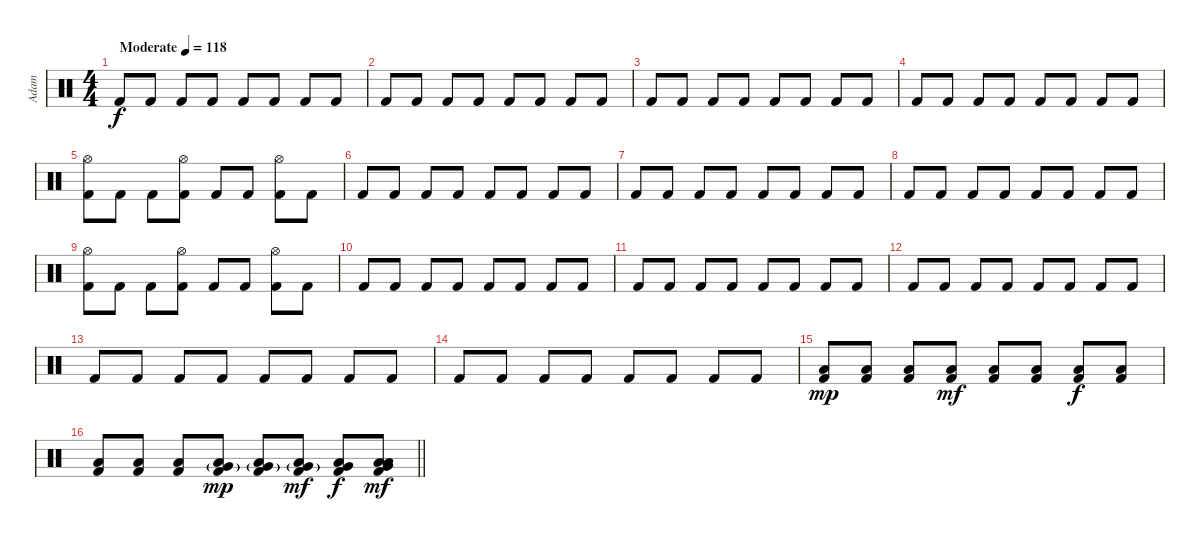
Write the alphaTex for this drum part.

\track ("Adam" "Adam") {instrument percussion}
\staff {score}
\articulation defaults
\ts (4 4)
\tempo (118 "Moderate")
\clef neutral
\ks c "Kick (hit) 2".8{dy f} "Kick (hit) 2".8 "Kick (hit) 2".8 "Kick (hit) 2".8 "Kick (hit) 2".8 "Kick (hit) 2".8 "Kick (hit) 2".8 "Kick (hit) 2".8
|
"Kick (hit) 2".8 "Kick (hit) 2".8 "Kick (hit) 2".8 "Kick (hit) 2".8 "Kick (hit) 2".8 "Kick (hit) 2".8 "Kick (hit) 2".8 "Kick (hit) 2".8 |
"Kick (hit) 2".8 "Kick (hit) 2".8 "Kick (hit) 2".8 "Kick (hit) 2".8 "Kick (hit) 2".8 "Kick (hit) 2".8 "Kick (hit) 2".8 "Kick (hit) 2".8 |
"Kick (hit) 2".8 "Kick (hit) 2".8 "Kick (hit) 2".8 "Kick (hit) 2".8 "Kick (hit) 2".8 "Kick (hit) 2".8 "Kick (hit) 2".8 "Kick (hit) 2".8 |
("Kick (hit) 2" "Hi-Hat (open)").8 "Kick (hit) 2".8 "Kick (hit) 2".8 ("Kick (hit) 2" "Hi-Hat (open)").8 "Kick (hit) 2".8 "Kick (hit) 2".8 ("Kick (hit) 2" "Hi-Hat (open)").8 "Kick (hit) 2".8 |
"Kick (hit) 2".8 "Kick (hit) 2".8 "Kick (hit) 2".8 "Kick (hit) 2".8 "Kick (hit) 2".8 "Kick (hit) 2".8 "Kick (hit) 2".8 "Kick (hit) 2".8 |
"Kick (hit) 2".8 "Kick (hit) 2".8 "Kick (hit) 2".8 "Kick (hit) 2".8 "Kick (hit) 2".8 "Kick (hit) 2".8 "Kick (hit) 2".8 "Kick (hit) 2".8 |
"Kick (hit) 2".8 "Kick (hit) 2".8 "Kick (hit) 2".8 "Kick (hit) 2".8 "Kick (hit) 2".8 "Kick (hit) 2".8 "Kick (hit) 2".8 "Kick (hit) 2".8 |
("Kick (hit) 2" "Hi-Hat (open)").8 "Kick (hit) 2".8 "Kick (hit) 2".8 ("Kick (hit) 2" "Hi-Hat (open)").8 "Kick (hit) 2".8 "Kick (hit) 2".8 ("Kick (hit) 2" "Hi-Hat (open)").8 "Kick (hit) 2".8 |
"Kick (hit) 2".8 "Kick (hit) 2".8 "Kick (hit) 2".8 "Kick (hit) 2".8 "Kick (hit) 2".8 "Kick (hit) 2".8 "Kick (hit) 2".8 "Kick (hit) 2".8 |
"Kick (hit) 2".8 "Kick (hit) 2".8 "Kick (hit) 2".8 "Kick (hit) 2".8 "Kick (hit) 2".8 "Kick (hit) 2".8 "Kick (hit) 2".8 "Kick (hit) 2".8 |
"Kick (hit) 2".8 "Kick (hit) 2".8 "Kick (hit) 2".8 "Kick (hit) 2".8 "Kick (hit) 2".8 "Kick (hit) 2".8 "Kick (hit) 2".8 "Kick (hit) 2".8 |
"Kick (hit) 2".8 "Kick (hit) 2".8 "Kick (hit) 2".8 "Kick (hit) 2".8 "Kick (hit) 2".8 "Kick (hit) 2".8 "Kick (hit) 2".8 "Kick (hit) 2".8 |
"Kick (hit) 2".8 "Kick (hit) 2".8 "Kick (hit) 2".8 "Kick (hit) 2".8 "Kick (hit) 2".8 "Kick (hit) 2".8 "Kick (hit) 2".8 "Kick (hit) 2".8 |
("Kick (hit) 2" "Low Floor Tom (hit)").8{dy mp} ("Kick (hit) 2" "Low Floor Tom (hit)").8 ("Kick (hit) 2" "Low Floor Tom (hit)").8{bu 120} ("Kick (hit) 2" "Low Floor Tom (hit)").8{bd 120 dy mf} ("Kick (hit) 2" "Low Floor Tom (hit)").8{bd 120} ("Kick (hit) 2" "Low Floor Tom (hit)").8{bd 120} ("Kick (hit) 2" "Low Floor Tom (hit)").8{bd 120 dy f} ("Kick (hit) 2" "Low Floor Tom (hit)").8{bd 120} |
\barLineRight lightlight
("Kick (hit) 2" "Low Floor Tom (hit)").8{bd 60} ("Kick (hit) 2" "Low Floor Tom (hit)").8{bd 60} ("Kick (hit) 2" "Low Floor Tom (hit)").8{bd 60} ("Kick (hit) 2" "Low Floor Tom (hit)" "Very Low Tom (hit)"{g}).8{dy mp} ("Kick (hit) 2" "Low Floor Tom (hit)" "Very Low Tom (hit)"{g}).8{bd 60} ("Kick (hit) 2" "Low Floor Tom (hit)" "Very Low Tom (hit)"{g}).8{bd 60 dy mf} ("Kick (hit) 2" "Low Floor Tom (hit)" "Very Low Tom (hit)").8{bd 60 dy f} ("Kick (hit) 2" "Low Floor Tom (hit)" "Very Low Tom (hit)" "Low Tom (hit)").8{bd 60 dy mf}
